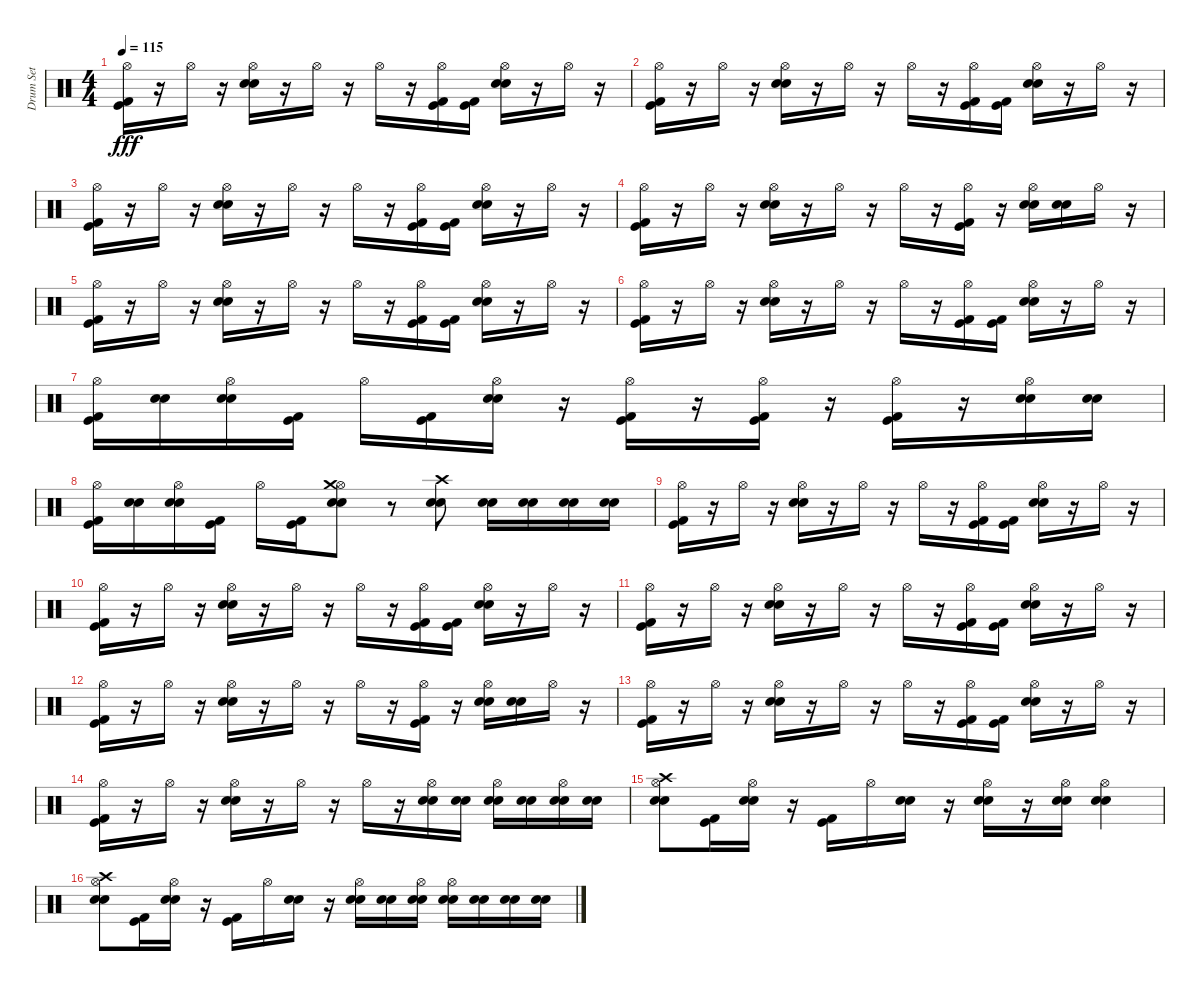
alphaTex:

\track ("Drum Set" "Drum Set") {instrument percussion}
\staff {score}
\articulation defaults
\ts (4 4)
\tempo 115
\clef neutral
\ks c
("Hi-Hat (open)" "Kick (hit)" "Kick (hit) 2").16{dy fff} r.16 "Hi-Hat (open)".16 r.16 ("Hi-Hat (open)" "Electric Snare (hit)" "Snare (hit) 2").16 r.16 "Hi-Hat (open)".16 r.16 "Hi-Hat (open)".16 r.16 ("Hi-Hat (open)" "Kick (hit) 2" "Kick (hit)").16 ("Kick (hit) 2" "Kick (hit)").16 ("Hi-Hat (open)" "Electric Snare (hit)" "Snare (hit) 2").16 r.16 "Hi-Hat (open)".16 r.16 |
("Kick (hit)" "Kick (hit) 2" "Hi-Hat (open)").16 r.16 "Hi-Hat (open)".16 r.16 ("Electric Snare (hit)" "Snare (hit) 2" "Hi-Hat (open)").16 r.16 "Hi-Hat (open)".16 r.16 "Hi-Hat (open)".16 r.16 ("Kick (hit) 2" "Kick (hit)" "Hi-Hat (open)").16 ("Kick (hit) 2" "Kick (hit)").16 ("Electric Snare (hit)" "Snare (hit) 2" "Hi-Hat (open)").16 r.16 "Hi-Hat (open)".16 r.16 |
("Kick (hit)" "Kick (hit) 2" "Hi-Hat (open)").16 r.16 "Hi-Hat (open)".16 r.16 ("Electric Snare (hit)" "Snare (hit) 2" "Hi-Hat (open)").16 r.16 "Hi-Hat (open)".16 r.16 "Hi-Hat (open)".16 r.16 ("Kick (hit) 2" "Kick (hit)" "Hi-Hat (open)").16 ("Kick (hit) 2" "Kick (hit)").16 ("Electric Snare (hit)" "Snare (hit) 2" "Hi-Hat (open)").16 r.16 "Hi-Hat (open)".16 r.16 |
("Kick (hit)" "Kick (hit) 2" "Hi-Hat (open)").16 r.16 "Hi-Hat (open)".16 r.16 ("Electric Snare (hit)" "Snare (hit) 2" "Hi-Hat (open)").16 r.16 "Hi-Hat (open)".16 r.16 "Hi-Hat (open)".16 r.16 ("Kick (hit) 2" "Kick (hit)" "Hi-Hat (open)").16 r.16 ("Electric Snare (hit)" "Snare (hit) 2" "Hi-Hat (open)").16 ("Snare (hit) 2" "Electric Snare (hit)").16 "Hi-Hat (open)".16 r.16 |
("Hi-Hat (open)" "Kick (hit)" "Kick (hit) 2").16 r.16 "Hi-Hat (open)".16 r.16 ("Electric Snare (hit)" "Snare (hit) 2" "Hi-Hat (open)").16 r.16 "Hi-Hat (open)".16 r.16 "Hi-Hat (open)".16 r.16 ("Hi-Hat (open)" "Kick (hit)" "Kick (hit) 2").16 ("Kick (hit) 2" "Kick (hit)").16 ("Hi-Hat (open)" "Electric Snare (hit)" "Snare (hit) 2").16 r.16 "Hi-Hat (open)".16 r.16 |
("Kick (hit) 2" "Kick (hit)" "Hi-Hat (open)").16 r.16 "Hi-Hat (open)".16 r.16 ("Electric Snare (hit)" "Snare (hit) 2" "Hi-Hat (open)").16 r.16 "Hi-Hat (open)".16 r.16 "Hi-Hat (open)".16 r.16 ("Kick (hit) 2" "Kick (hit)" "Hi-Hat (open)").16 ("Kick (hit)" "Kick (hit) 2").16 ("Electric Snare (hit)" "Snare (hit) 2" "Hi-Hat (open)").16 r.16 "Hi-Hat (open)".16 r.16 |
("Hi-Hat (open)" "Kick (hit) 2" "Kick (hit)").16 ("Electric Snare (hit)" "Snare (hit) 2").16 ("Hi-Hat (open)" "Snare (hit) 2" "Electric Snare (hit)").16 ("Kick (hit)" "Kick (hit) 2").16 "Hi-Hat (open)".16 ("Kick (hit) 2" "Kick (hit)").16 ("Hi-Hat (open)" "Electric Snare (hit)" "Snare (hit) 2").16 r.16 ("Kick (hit)" "Kick (hit) 2" "Hi-Hat (open)").16 r.16 ("Hi-Hat (open)" "Kick (hit) 2" "Kick (hit)").16 r.16 ("Hi-Hat (open)" "Kick (hit)" "Kick (hit) 2").16 r.16 ("Hi-Hat (open)" "Electric Snare (hit)" "Snare (hit) 2").16 ("Snare (hit) 2" "Electric Snare (hit)").16 |
("Hi-Hat (open)" "Kick (hit) 2" "Kick (hit)").16 ("Electric Snare (hit)" "Snare (hit) 2").16 ("Hi-Hat (open)" "Snare (hit) 2" "Electric Snare (hit)").16 ("Kick (hit)" "Kick (hit) 2").16 "Hi-Hat (open)".16 ("Kick (hit) 2" "Kick (hit)").16 ("Hi-Hat (open)" "Electric Snare (hit)" "Snare (hit) 2" "Crash medium (hit)").8 r.8 ("Snare (hit) 2" "Electric Snare (hit)" "Crash high (hit)").8 ("Snare (hit) 2" "Electric Snare (hit)").16 ("Electric Snare (hit)" "Snare (hit) 2").16 ("Snare (hit) 2" "Electric Snare (hit)").16 ("Electric Snare (hit)" "Snare (hit) 2").16 |
("Hi-Hat (open)" "Kick (hit)" "Kick (hit) 2").16 r.16 "Hi-Hat (open)".16 r.16 ("Hi-Hat (open)" "Electric Snare (hit)" "Snare (hit) 2").16 r.16 "Hi-Hat (open)".16 r.16 "Hi-Hat (open)".16 r.16 ("Hi-Hat (open)" "Kick (hit) 2" "Kick (hit)").16 ("Kick (hit) 2" "Kick (hit)").16 ("Hi-Hat (open)" "Electric Snare (hit)" "Snare (hit) 2").16 r.16 "Hi-Hat (open)".16 r.16 |
("Kick (hit)" "Kick (hit) 2" "Hi-Hat (open)").16 r.16 "Hi-Hat (open)".16 r.16 ("Electric Snare (hit)" "Snare (hit) 2" "Hi-Hat (open)").16 r.16 "Hi-Hat (open)".16 r.16 "Hi-Hat (open)".16 r.16 ("Kick (hit) 2" "Kick (hit)" "Hi-Hat (open)").16 ("Kick (hit) 2" "Kick (hit)").16 ("Electric Snare (hit)" "Snare (hit) 2" "Hi-Hat (open)").16 r.16 "Hi-Hat (open)".16 r.16 |
("Hi-Hat (open)" "Kick (hit)" "Kick (hit) 2").16 r.16 "Hi-Hat (open)".16 r.16 ("Hi-Hat (open)" "Electric Snare (hit)" "Snare (hit) 2").16 r.16 "Hi-Hat (open)".16 r.16 "Hi-Hat (open)".16 r.16 ("Hi-Hat (open)" "Kick (hit) 2" "Kick (hit)").16 ("Kick (hit) 2" "Kick (hit)").16 ("Hi-Hat (open)" "Electric Snare (hit)" "Snare (hit) 2").16 r.16 "Hi-Hat (open)".16 r.16 |
("Hi-Hat (open)" "Kick (hit)" "Kick (hit) 2").16 r.16 "Hi-Hat (open)".16 r.16 ("Hi-Hat (open)" "Electric Snare (hit)" "Snare (hit) 2").16 r.16 "Hi-Hat (open)".16 r.16 "Hi-Hat (open)".16 r.16 ("Hi-Hat (open)" "Kick (hit) 2" "Kick (hit)").16 r.16 ("Hi-Hat (open)" "Electric Snare (hit)" "Snare (hit) 2").16 ("Snare (hit) 2" "Electric Snare (hit)").16 "Hi-Hat (open)".16 r.16 |
("Hi-Hat (open)" "Kick (hit)" "Kick (hit) 2").16 r.16 "Hi-Hat (open)".16 r.16 ("Electric Snare (hit)" "Snare (hit) 2" "Hi-Hat (open)").16 r.16 "Hi-Hat (open)".16 r.16 "Hi-Hat (open)".16 r.16 ("Hi-Hat (open)" "Kick (hit)" "Kick (hit) 2").16 ("Kick (hit) 2" "Kick (hit)").16 ("Hi-Hat (open)" "Electric Snare (hit)" "Snare (hit) 2").16 r.16 "Hi-Hat (open)".16 r.16 |
("Kick (hit) 2" "Kick (hit)" "Hi-Hat (open)").16 r.16 "Hi-Hat (open)".16 r.16 ("Electric Snare (hit)" "Snare (hit) 2" "Hi-Hat (open)").16 r.16 "Hi-Hat (open)".16 r.16 "Hi-Hat (open)".16 r.16 ("Electric Snare (hit)" "Snare (hit) 2" "Hi-Hat (open)").16 ("Snare (hit) 2" "Electric Snare (hit)").16 ("Electric Snare (hit)" "Snare (hit) 2" "Hi-Hat (open)").16 ("Snare (hit) 2" "Electric Snare (hit)").16 ("Snare (hit) 2" "Electric Snare (hit)" "Hi-Hat (open)").16 ("Snare (hit) 2" "Electric Snare (hit)").16 |
("Crash high (hit)" "Hi-Hat (open)" "Snare (hit) 2" "Electric Snare (hit)").8 ("Kick (hit) 2" "Kick (hit)").16 ("Hi-Hat (open)" "Electric Snare (hit)" "Snare (hit) 2").16 r.16 ("Kick (hit)" "Kick (hit) 2").16 "Hi-Hat (open)".16 ("Electric Snare (hit)" "Snare (hit) 2").16 r.16 ("Electric Snare (hit)" "Snare (hit) 2" "Hi-Hat (open)").16 r.16 ("Hi-Hat (open)" "Electric Snare (hit)" "Snare (hit) 2").16 ("Hi-Hat (open)" "Electric Snare (hit)" "Snare (hit) 2").4 |
("Crash high (hit)" "Hi-Hat (open)" "Snare (hit) 2" "Electric Snare (hit)").8 ("Kick (hit) 2" "Kick (hit)").16 ("Hi-Hat (open)" "Electric Snare (hit)" "Snare (hit) 2").16 r.16 ("Kick (hit)" "Kick (hit) 2").16 "Hi-Hat (open)".16 ("Electric Snare (hit)" "Snare (hit) 2").16 r.16 ("Snare (hit) 2" "Electric Snare (hit)" "Hi-Hat (open)").16 ("Electric Snare (hit)" "Snare (hit) 2").16 ("Electric Snare (hit)" "Snare (hit) 2" "Hi-Hat (open)").16 ("Hi-Hat (open)" "Snare (hit) 2" "Electric Snare (hit)").16 ("Electric Snare (hit)" "Snare (hit) 2").16 ("Snare (hit) 2" "Electric Snare (hit)").16 ("Electric Snare (hit)" "Snare (hit) 2").16
